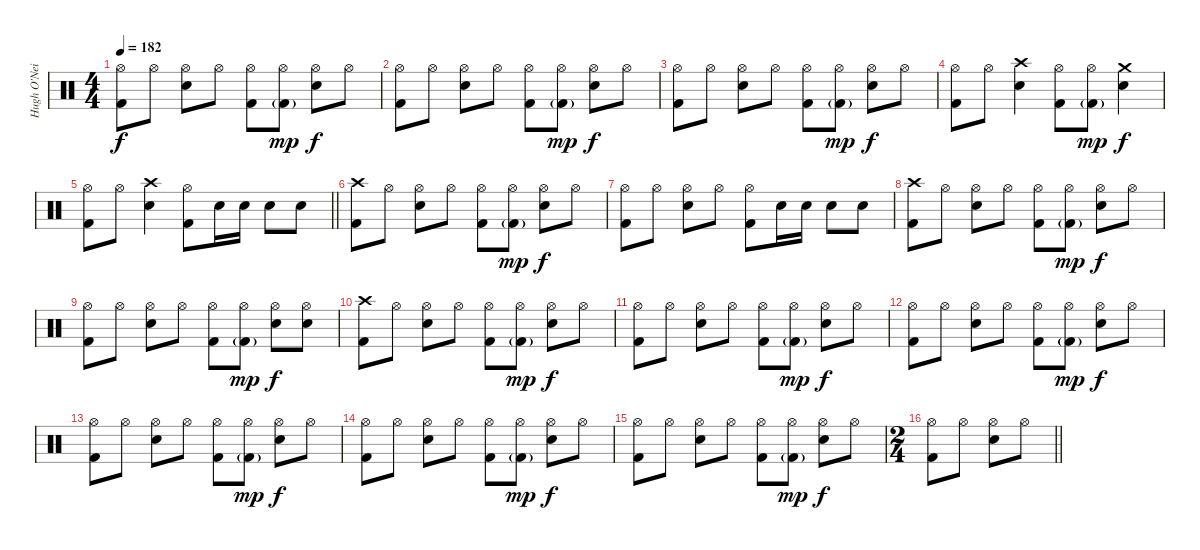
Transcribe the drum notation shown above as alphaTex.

\track ("Hugh O'Neil" "Hugh O'Nei") {instrument percussion}
\staff {score}
\articulation defaults
\ts (4 4)
\tempo 182
\clef neutral
\ks c
("Hi-Hat (open)" "Kick (hit) 2").8{dy f} "Hi-Hat (open)".8 ("Hi-Hat (open)" "Electric Snare (hit)").8 "Hi-Hat (open)".8 ("Hi-Hat (open)" "Kick (hit) 2").8 ("Hi-Hat (open)" "Kick (hit) 2"{g}).8{dy mp} ("Hi-Hat (open)" "Electric Snare (hit)").8{dy f} "Hi-Hat (open)".8 |
("Hi-Hat (open)" "Kick (hit) 2").8 "Hi-Hat (open)".8 ("Hi-Hat (open)" "Electric Snare (hit)").8 "Hi-Hat (open)".8 ("Hi-Hat (open)" "Kick (hit) 2").8 ("Hi-Hat (open)" "Kick (hit) 2"{g}).8{dy mp} ("Hi-Hat (open)" "Electric Snare (hit)").8{dy f} "Hi-Hat (open)".8 |
("Hi-Hat (open)" "Kick (hit) 2").8 "Hi-Hat (open)".8 ("Hi-Hat (open)" "Electric Snare (hit)").8 "Hi-Hat (open)".8 ("Hi-Hat (open)" "Kick (hit) 2").8 ("Hi-Hat (open)" "Kick (hit) 2"{g}).8{dy mp} ("Hi-Hat (open)" "Electric Snare (hit)").8{dy f} "Hi-Hat (open)".8 |
("Hi-Hat (open)" "Kick (hit) 2").8 "Hi-Hat (open)".8 ("Crash high (hit)" "Electric Snare (hit)").4 ("Hi-Hat (open)" "Kick (hit) 2").8 ("Hi-Hat (open)" "Kick (hit) 2"{g}).8{dy mp} ("Crash medium (hit)" "Electric Snare (hit)").4{dy f} |
\barLineRight lightlight
("Hi-Hat (open)" "Kick (hit) 2").8 "Hi-Hat (open)".8 ("Crash high (hit)" "Electric Snare (hit)").4 ("Hi-Hat (open)" "Kick (hit) 2").8 "Electric Snare (hit)".16 "Electric Snare (hit)".16 "Electric Snare (hit)".8 "Electric Snare (hit)".8 |
\section ("" "")
("Crash high (hit)" "Kick (hit) 2").8 "Hi-Hat (open)".8 ("Hi-Hat (open)" "Electric Snare (hit)").8 "Hi-Hat (open)".8 ("Hi-Hat (open)" "Kick (hit) 2").8 ("Hi-Hat (open)" "Kick (hit) 2"{g}).8{dy mp} ("Hi-Hat (open)" "Electric Snare (hit)").8{dy f} "Hi-Hat (open)".8 |
("Hi-Hat (open)" "Kick (hit) 2").8 "Hi-Hat (open)".8 ("Hi-Hat (open)" "Electric Snare (hit)").8 "Hi-Hat (open)".8 ("Hi-Hat (open)" "Kick (hit) 2").8 "Electric Snare (hit)".16 "Electric Snare (hit)".16 "Electric Snare (hit)".8 "Electric Snare (hit)".8 |
("Crash high (hit)" "Kick (hit) 2").8 "Hi-Hat (open)".8 ("Hi-Hat (open)" "Electric Snare (hit)").8 "Hi-Hat (open)".8 ("Hi-Hat (open)" "Kick (hit) 2").8 ("Hi-Hat (open)" "Kick (hit) 2"{g}).8{dy mp} ("Hi-Hat (open)" "Electric Snare (hit)").8{dy f} "Hi-Hat (open)".8 |
("Hi-Hat (open)" "Kick (hit) 2").8 "Hi-Hat (open)".8 ("Hi-Hat (open)" "Electric Snare (hit)").8 "Hi-Hat (open)".8 ("Hi-Hat (open)" "Kick (hit) 2").8 ("Hi-Hat (open)" "Kick (hit) 2"{g}).8{dy mp} ("Hi-Hat (open)" "Electric Snare (hit)").8{dy f} ("Hi-Hat (open)" "Electric Snare (hit)").8 |
("Crash high (hit)" "Kick (hit) 2").8 "Hi-Hat (open)".8 ("Hi-Hat (open)" "Electric Snare (hit)").8 "Hi-Hat (open)".8 ("Hi-Hat (open)" "Kick (hit) 2").8 ("Hi-Hat (open)" "Kick (hit) 2"{g}).8{dy mp} ("Hi-Hat (open)" "Electric Snare (hit)").8{dy f} "Hi-Hat (open)".8 |
("Hi-Hat (open)" "Kick (hit) 2").8 "Hi-Hat (open)".8 ("Hi-Hat (open)" "Electric Snare (hit)").8 "Hi-Hat (open)".8 ("Hi-Hat (open)" "Kick (hit) 2").8 ("Hi-Hat (open)" "Kick (hit) 2"{g}).8{dy mp} ("Hi-Hat (open)" "Electric Snare (hit)").8{dy f} "Hi-Hat (open)".8 |
("Hi-Hat (open)" "Kick (hit) 2").8 "Hi-Hat (open)".8 ("Hi-Hat (open)" "Electric Snare (hit)").8 "Hi-Hat (open)".8 ("Hi-Hat (open)" "Kick (hit) 2").8 ("Hi-Hat (open)" "Kick (hit) 2"{g}).8{dy mp} ("Hi-Hat (open)" "Electric Snare (hit)").8{dy f} "Hi-Hat (open)".8 |
("Hi-Hat (open)" "Kick (hit) 2").8 "Hi-Hat (open)".8 ("Hi-Hat (open)" "Electric Snare (hit)").8 "Hi-Hat (open)".8 ("Hi-Hat (open)" "Kick (hit) 2").8 ("Hi-Hat (open)" "Kick (hit) 2"{g}).8{dy mp} ("Hi-Hat (open)" "Electric Snare (hit)").8{dy f} "Hi-Hat (open)".8 |
("Hi-Hat (open)" "Kick (hit) 2").8 "Hi-Hat (open)".8 ("Hi-Hat (open)" "Electric Snare (hit)").8 "Hi-Hat (open)".8 ("Hi-Hat (open)" "Kick (hit) 2").8 ("Hi-Hat (open)" "Kick (hit) 2"{g}).8{dy mp} ("Hi-Hat (open)" "Electric Snare (hit)").8{dy f} "Hi-Hat (open)".8 |
("Hi-Hat (open)" "Kick (hit) 2").8 "Hi-Hat (open)".8 ("Hi-Hat (open)" "Electric Snare (hit)").8 "Hi-Hat (open)".8 ("Hi-Hat (open)" "Kick (hit) 2").8 ("Hi-Hat (open)" "Kick (hit) 2"{g}).8{dy mp} ("Hi-Hat (open)" "Electric Snare (hit)").8{dy f} "Hi-Hat (open)".8 |
\ts (2 4)
\barLineRight lightlight
("Hi-Hat (open)" "Kick (hit) 2").8 "Hi-Hat (open)".8 ("Hi-Hat (open)" "Electric Snare (hit)").8 "Hi-Hat (open)".8
